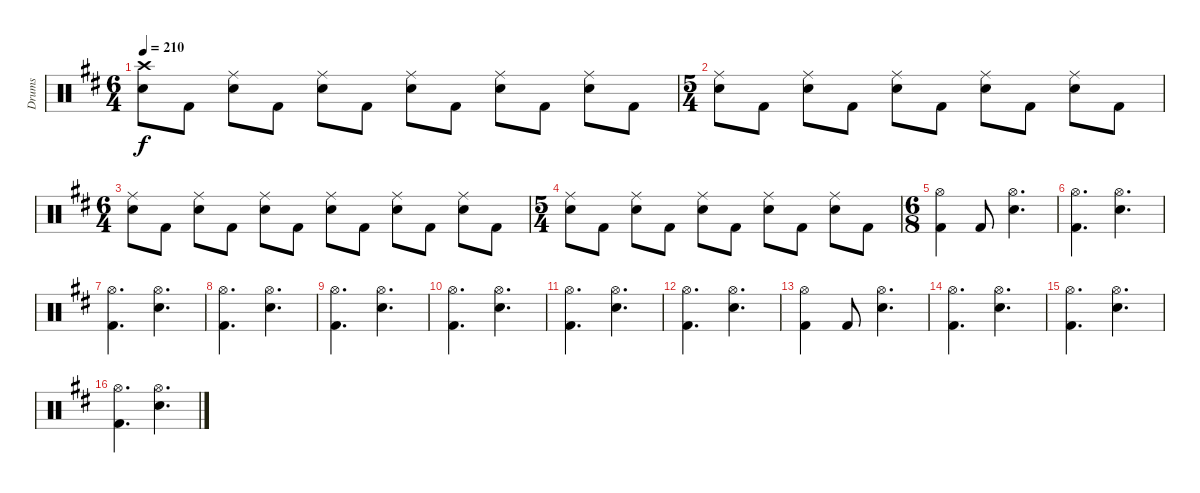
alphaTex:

\track ("Drums" "Drums") {instrument percussion}
\staff {score}
\articulation defaults
\ts (6 4)
\tempo 210
\clef neutral
\ks bminor
("Electric Snare (hit)" "Crash high (hit)").8{dy f} "Kick (hit) 2".8 ("Electric Snare (hit)" "Ride (middle)").8 "Kick (hit) 2".8 ("Electric Snare (hit)" "Ride (middle)").8 "Kick (hit) 2".8 ("Electric Snare (hit)" "Ride (middle)").8 "Kick (hit) 2".8 ("Electric Snare (hit)" "Ride (middle)").8 "Kick (hit) 2".8 ("Electric Snare (hit)" "Ride (middle)").8 "Kick (hit) 2".8 |
\ts (5 4)
("Electric Snare (hit)" "Ride (middle)").8 "Kick (hit) 2".8 ("Electric Snare (hit)" "Ride (middle)").8 "Kick (hit) 2".8 ("Electric Snare (hit)" "Ride (middle)").8 "Kick (hit) 2".8 ("Electric Snare (hit)" "Ride (middle)").8 "Kick (hit) 2".8 ("Electric Snare (hit)" "Ride (middle)").8 "Kick (hit) 2".8 |
\ts (6 4)
("Electric Snare (hit)" "Ride (middle)").8 "Kick (hit) 2".8 ("Electric Snare (hit)" "Ride (middle)").8 "Kick (hit) 2".8 ("Electric Snare (hit)" "Ride (middle)").8 "Kick (hit) 2".8 ("Electric Snare (hit)" "Ride (middle)").8 "Kick (hit) 2".8 ("Electric Snare (hit)" "Ride (middle)").8 "Kick (hit) 2".8 ("Electric Snare (hit)" "Ride (middle)").8 "Kick (hit) 2".8 |
\ts (5 4)
("Electric Snare (hit)" "Ride (middle)").8 "Kick (hit) 2".8 ("Electric Snare (hit)" "Ride (middle)").8 "Kick (hit) 2".8 ("Electric Snare (hit)" "Ride (middle)").8 "Kick (hit) 2".8 ("Electric Snare (hit)" "Ride (middle)").8 "Kick (hit) 2".8 ("Electric Snare (hit)" "Ride (middle)").8 "Kick (hit) 2".8 |
\ts (6 8)
("Kick (hit) 2" "Hi-Hat (open)").4 "Kick (hit) 2".8 ("Electric Snare (hit)" "Hi-Hat (open)").4{d} |
("Kick (hit) 2" "Hi-Hat (open)").4{d} ("Electric Snare (hit)" "Hi-Hat (open)").4{d} |
("Kick (hit) 2" "Hi-Hat (open)").4{d} ("Electric Snare (hit)" "Hi-Hat (open)").4{d} |
("Kick (hit) 2" "Hi-Hat (open)").4{d} ("Electric Snare (hit)" "Hi-Hat (open)").4{d} |
("Kick (hit) 2" "Hi-Hat (open)").4{d} ("Electric Snare (hit)" "Hi-Hat (open)").4{d} |
("Kick (hit) 2" "Hi-Hat (open)").4{d} ("Electric Snare (hit)" "Hi-Hat (open)").4{d} |
("Kick (hit) 2" "Hi-Hat (open)").4{d} ("Electric Snare (hit)" "Hi-Hat (open)").4{d} |
("Kick (hit) 2" "Hi-Hat (open)").4{d} ("Electric Snare (hit)" "Hi-Hat (open)").4{d} |
("Kick (hit) 2" "Hi-Hat (open)").4 "Kick (hit) 2".8 ("Electric Snare (hit)" "Hi-Hat (open)").4{d} |
("Kick (hit) 2" "Hi-Hat (open)").4{d} ("Electric Snare (hit)" "Hi-Hat (open)").4{d} |
("Kick (hit) 2" "Hi-Hat (open)").4{d} ("Electric Snare (hit)" "Hi-Hat (open)").4{d} |
("Kick (hit) 2" "Hi-Hat (open)").4{d} ("Electric Snare (hit)" "Hi-Hat (open)").4{d}
